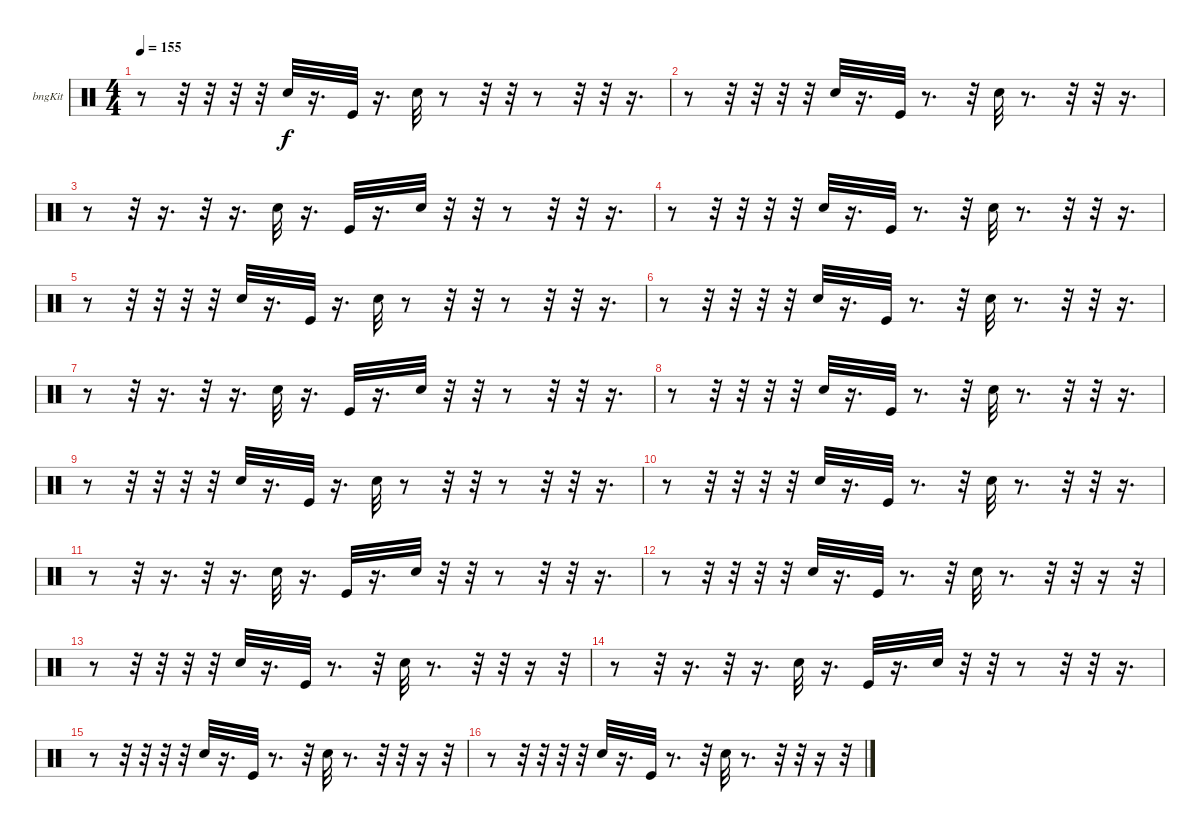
\bracketExtendMode groupsimilarinstruments
\firstSystemTrackNameOrientation horizontal
\otherSystemsTrackNameOrientation horizontal
\track ("Е. Кулаков" "bngKit") {instrument percussion}
\staff {score}
\articulation defaults
\ts (4 4)
\tempo 155
\clef neutral
\ks c
r.8{dy f} r.32 r.32 r.32 r.32 "Snare (hit) 2".32 r.16{d} "Kick (hit)".32 r.16{d} "Snare (hit) 2".32 r.8 r.32 r.32 r.8 r.32 r.32 r.16{d} |
r.8 r.32 r.32 r.32 r.32 "Snare (hit) 2".32 r.16{d} "Kick (hit)".32 r.8{d} r.32 "Snare (hit) 2".32 r.8{d} r.32 r.32 r.16{d} |
r.8 r.32 r.16{d} r.32 r.16{d} "Snare (hit) 2".32 r.16{d} "Kick (hit)".32 r.16{d} "Snare (hit) 2".32 r.32 r.32 r.8 r.32 r.32 r.16{d} |
r.8 r.32 r.32 r.32 r.32 "Snare (hit) 2".32 r.16{d} "Kick (hit)".32 r.8{d} r.32 "Snare (hit) 2".32 r.8{d} r.32 r.32 r.16{d} |
r.8 r.32 r.32 r.32 r.32 "Snare (hit) 2".32 r.16{d} "Kick (hit)".32 r.16{d} "Snare (hit) 2".32 r.8 r.32 r.32 r.8 r.32 r.32 r.16{d} |
r.8 r.32 r.32 r.32 r.32 "Snare (hit) 2".32 r.16{d} "Kick (hit)".32 r.8{d} r.32 "Snare (hit) 2".32 r.8{d} r.32 r.32 r.16{d} |
r.8 r.32 r.16{d} r.32 r.16{d} "Snare (hit) 2".32 r.16{d} "Kick (hit)".32 r.16{d} "Snare (hit) 2".32 r.32 r.32 r.8 r.32 r.32 r.16{d} |
r.8 r.32 r.32 r.32 r.32 "Snare (hit) 2".32 r.16{d} "Kick (hit)".32 r.8{d} r.32 "Snare (hit) 2".32 r.8{d} r.32 r.32 r.16{d} |
r.8 r.32 r.32 r.32 r.32 "Snare (hit) 2".32 r.16{d} "Kick (hit)".32 r.16{d} "Snare (hit) 2".32 r.8 r.32 r.32 r.8 r.32 r.32 r.16{d} |
r.8 r.32 r.32 r.32 r.32 "Snare (hit) 2".32 r.16{d} "Kick (hit)".32 r.8{d} r.32 "Snare (hit) 2".32 r.8{d} r.32 r.32 r.16{d} |
r.8 r.32 r.16{d} r.32 r.16{d} "Snare (hit) 2".32 r.16{d} "Kick (hit)".32 r.16{d} "Snare (hit) 2".32 r.32 r.32 r.8 r.32 r.32 r.16{d} |
r.8 r.32 r.32 r.32 r.32 "Snare (hit) 2".32 r.16{d} "Kick (hit)".32 r.8{d} r.32 "Snare (hit) 2".32 r.8{d} r.32 r.32 r.16 r.32 |
r.8 r.32 r.32 r.32 r.32 "Snare (hit) 2".32 r.16{d} "Kick (hit)".32 r.8{d} r.32 "Snare (hit) 2".32 r.8{d} r.32 r.32 r.16 r.32 |
r.8 r.32 r.16{d} r.32 r.16{d} "Snare (hit) 2".32 r.16{d} "Kick (hit)".32 r.16{d} "Snare (hit) 2".32 r.32 r.32 r.8 r.32 r.32 r.16{d} |
r.8 r.32 r.32 r.32 r.32 "Snare (hit) 2".32 r.16{d} "Kick (hit)".32 r.8{d} r.32 "Snare (hit) 2".32 r.8{d} r.32 r.32 r.16 r.32 |
r.8 r.32 r.32 r.32 r.32 "Snare (hit) 2".32 r.16{d} "Kick (hit)".32 r.8{d} r.32 "Snare (hit) 2".32 r.8{d} r.32 r.32 r.16 r.32
